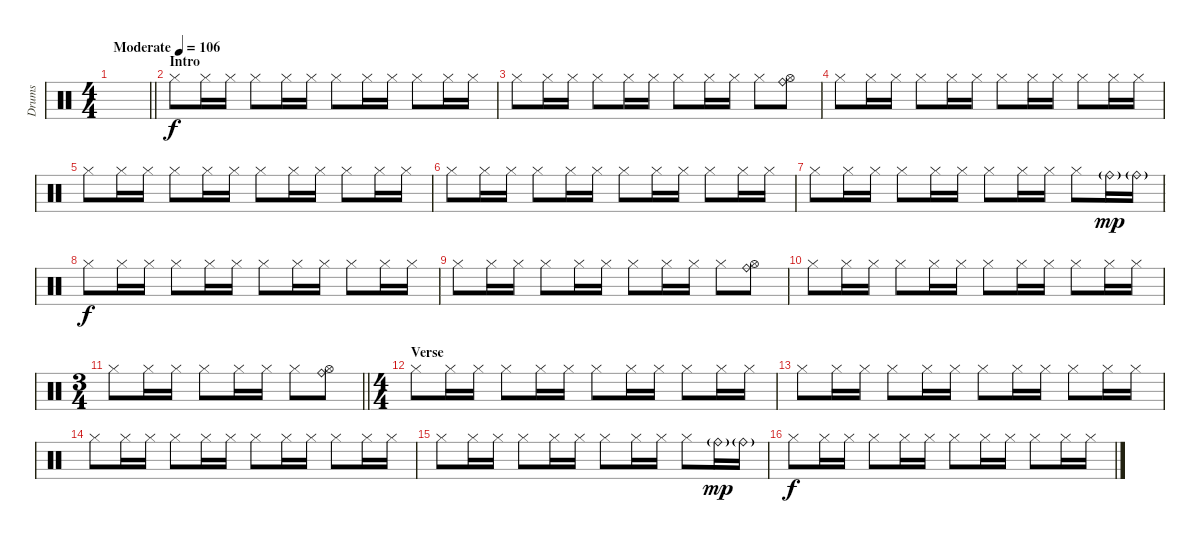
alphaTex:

\track ("Drums" "Drums") {instrument percussion}
\staff {score}
\articulation defaults
\ts (4 4)
\tempo (106 "Moderate")
\clef neutral
\barLineRight lightlight
\ks c
|
\section ("" "Intro")
"Hi-Hat (closed)".8 "Hi-Hat (closed)".16 "Hi-Hat (closed)".16 "Hi-Hat (closed)".8 "Hi-Hat (closed)".16 "Hi-Hat (closed)".16 "Hi-Hat (closed)".8 "Hi-Hat (closed)".16 "Hi-Hat (closed)".16 "Hi-Hat (closed)".8 "Hi-Hat (closed)".16 "Hi-Hat (closed)".16 |
"Hi-Hat (closed)".8 "Hi-Hat (closed)".16 "Hi-Hat (closed)".16 "Hi-Hat (closed)".8 "Hi-Hat (closed)".16 "Hi-Hat (closed)".16 "Hi-Hat (closed)".8 "Hi-Hat (closed)".16 "Hi-Hat (closed)".16 "Hi-Hat (closed)".8 ("Ride (bell)" "Hi-Hat (open)").8 |
"Hi-Hat (closed)".8 "Hi-Hat (closed)".16 "Hi-Hat (closed)".16 "Hi-Hat (closed)".8 "Hi-Hat (closed)".16 "Hi-Hat (closed)".16 "Hi-Hat (closed)".8 "Hi-Hat (closed)".16 "Hi-Hat (closed)".16 "Hi-Hat (closed)".8 "Hi-Hat (closed)".16 "Hi-Hat (closed)".16 |
"Hi-Hat (closed)".8 "Hi-Hat (closed)".16 "Hi-Hat (closed)".16 "Hi-Hat (closed)".8 "Hi-Hat (closed)".16 "Hi-Hat (closed)".16 "Hi-Hat (closed)".8 "Hi-Hat (closed)".16 "Hi-Hat (closed)".16 "Hi-Hat (closed)".8 "Hi-Hat (closed)".16 "Hi-Hat (closed)".16 |
"Hi-Hat (closed)".8 "Hi-Hat (closed)".16 "Hi-Hat (closed)".16 "Hi-Hat (closed)".8 "Hi-Hat (closed)".16 "Hi-Hat (closed)".16 "Hi-Hat (closed)".8 "Hi-Hat (closed)".16 "Hi-Hat (closed)".16 "Hi-Hat (closed)".8 "Hi-Hat (closed)".16 "Hi-Hat (closed)".16 |
"Hi-Hat (closed)".8 "Hi-Hat (closed)".16 "Hi-Hat (closed)".16 "Hi-Hat (closed)".8 "Hi-Hat (closed)".16 "Hi-Hat (closed)".16 "Hi-Hat (closed)".8 "Hi-Hat (closed)".16 "Hi-Hat (closed)".16 "Hi-Hat (closed)".8 "Ride (bell)"{g}.16{dy mp} "Ride (bell)"{g}.16 |
"Hi-Hat (closed)".8{dy f} "Hi-Hat (closed)".16 "Hi-Hat (closed)".16 "Hi-Hat (closed)".8 "Hi-Hat (closed)".16 "Hi-Hat (closed)".16 "Hi-Hat (closed)".8 "Hi-Hat (closed)".16 "Hi-Hat (closed)".16 "Hi-Hat (closed)".8 "Hi-Hat (closed)".16 "Hi-Hat (closed)".16 |
"Hi-Hat (closed)".8 "Hi-Hat (closed)".16 "Hi-Hat (closed)".16 "Hi-Hat (closed)".8 "Hi-Hat (closed)".16 "Hi-Hat (closed)".16 "Hi-Hat (closed)".8 "Hi-Hat (closed)".16 "Hi-Hat (closed)".16 "Hi-Hat (closed)".8 ("Ride (bell)" "Hi-Hat (open)").8 |
"Hi-Hat (closed)".8 "Hi-Hat (closed)".16 "Hi-Hat (closed)".16 "Hi-Hat (closed)".8 "Hi-Hat (closed)".16 "Hi-Hat (closed)".16 "Hi-Hat (closed)".8 "Hi-Hat (closed)".16 "Hi-Hat (closed)".16 "Hi-Hat (closed)".8 "Hi-Hat (closed)".16 "Hi-Hat (closed)".16 |
\ts (3 4)
\barLineRight lightlight "Hi-Hat (closed)".8 "Hi-Hat (closed)".16 "Hi-Hat (closed)".16 "Hi-Hat (closed)".8 "Hi-Hat (closed)".16 "Hi-Hat (closed)".16 "Hi-Hat (closed)".8
("Ride (bell)" "Hi-Hat (open)").8 |
\ts (4 4)
\section ("" "Verse")
"Hi-Hat (closed)".8 "Hi-Hat (closed)".16 "Hi-Hat (closed)".16 "Hi-Hat (closed)".8 "Hi-Hat (closed)".16 "Hi-Hat (closed)".16 "Hi-Hat (closed)".8 "Hi-Hat (closed)".16 "Hi-Hat (closed)".16 "Hi-Hat (closed)".8 "Hi-Hat (closed)".16 "Hi-Hat (closed)".16 |
"Hi-Hat (closed)".8 "Hi-Hat (closed)".16 "Hi-Hat (closed)".16 "Hi-Hat (closed)".8 "Hi-Hat (closed)".16 "Hi-Hat (closed)".16 "Hi-Hat (closed)".8 "Hi-Hat (closed)".16 "Hi-Hat (closed)".16 "Hi-Hat (closed)".8 "Hi-Hat (closed)".16 "Hi-Hat (closed)".16 |
"Hi-Hat (closed)".8 "Hi-Hat (closed)".16 "Hi-Hat (closed)".16 "Hi-Hat (closed)".8 "Hi-Hat (closed)".16 "Hi-Hat (closed)".16 "Hi-Hat (closed)".8 "Hi-Hat (closed)".16 "Hi-Hat (closed)".16 "Hi-Hat (closed)".8 "Hi-Hat (closed)".16 "Hi-Hat (closed)".16 |
"Hi-Hat (closed)".8 "Hi-Hat (closed)".16 "Hi-Hat (closed)".16 "Hi-Hat (closed)".8 "Hi-Hat (closed)".16 "Hi-Hat (closed)".16 "Hi-Hat (closed)".8 "Hi-Hat (closed)".16 "Hi-Hat (closed)".16 "Hi-Hat (closed)".8 "Ride (bell)"{g}.16{dy mp} "Ride (bell)"{g}.16 |
"Hi-Hat (closed)".8{dy f} "Hi-Hat (closed)".16 "Hi-Hat (closed)".16 "Hi-Hat (closed)".8 "Hi-Hat (closed)".16 "Hi-Hat (closed)".16 "Hi-Hat (closed)".8 "Hi-Hat (closed)".16 "Hi-Hat (closed)".16 "Hi-Hat (closed)".8 "Hi-Hat (closed)".16 "Hi-Hat (closed)".16
